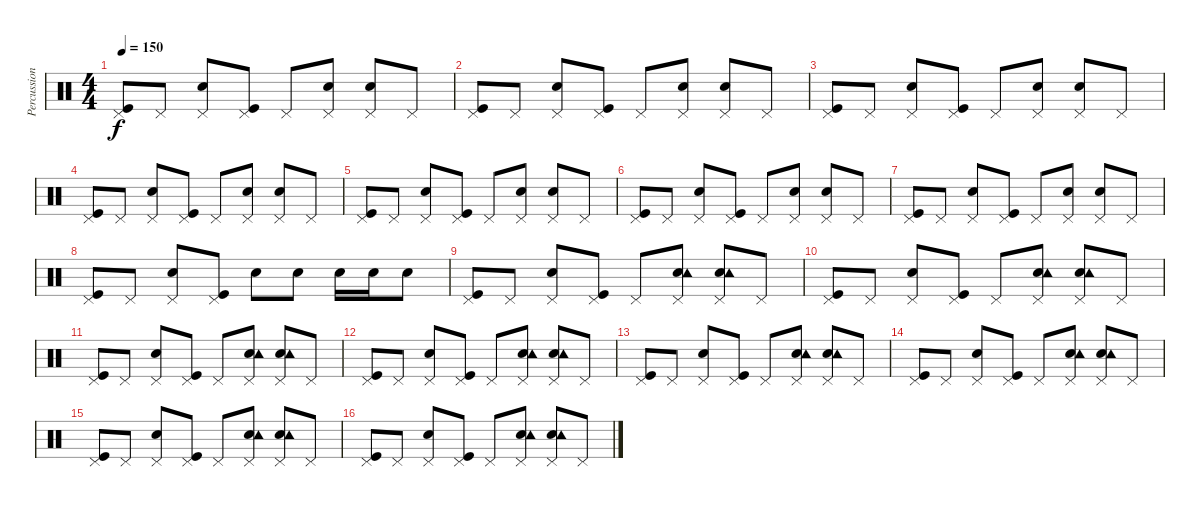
\track ("Percussion" "Percussion") {instrument percussion}
\staff {score}
\articulation defaults
\ts (4 4)
\tempo 150
\clef neutral
\ks c
("Kick (hit)" "Pedal Hi-Hat (hit)").8{dy f} "Pedal Hi-Hat (hit)".8 ("Electric Snare (hit)" "Pedal Hi-Hat (hit)").8 ("Kick (hit)" "Pedal Hi-Hat (hit)").8 "Pedal Hi-Hat (hit)".8 ("Electric Snare (hit)" "Pedal Hi-Hat (hit)").8 ("Electric Snare (hit)" "Pedal Hi-Hat (hit)").8 "Pedal Hi-Hat (hit)".8 |
("Kick (hit)" "Pedal Hi-Hat (hit)").8 "Pedal Hi-Hat (hit)".8 ("Electric Snare (hit)" "Pedal Hi-Hat (hit)").8 ("Kick (hit)" "Pedal Hi-Hat (hit)").8 "Pedal Hi-Hat (hit)".8 ("Electric Snare (hit)" "Pedal Hi-Hat (hit)").8 ("Electric Snare (hit)" "Pedal Hi-Hat (hit)").8 "Pedal Hi-Hat (hit)".8 |
("Kick (hit)" "Pedal Hi-Hat (hit)").8 "Pedal Hi-Hat (hit)".8 ("Electric Snare (hit)" "Pedal Hi-Hat (hit)").8 ("Kick (hit)" "Pedal Hi-Hat (hit)").8 "Pedal Hi-Hat (hit)".8 ("Electric Snare (hit)" "Pedal Hi-Hat (hit)").8 ("Electric Snare (hit)" "Pedal Hi-Hat (hit)").8 "Pedal Hi-Hat (hit)".8 |
("Kick (hit)" "Pedal Hi-Hat (hit)").8 "Pedal Hi-Hat (hit)".8 ("Electric Snare (hit)" "Pedal Hi-Hat (hit)").8 ("Kick (hit)" "Pedal Hi-Hat (hit)").8 "Pedal Hi-Hat (hit)".8 ("Electric Snare (hit)" "Pedal Hi-Hat (hit)").8 ("Electric Snare (hit)" "Pedal Hi-Hat (hit)").8 "Pedal Hi-Hat (hit)".8 |
("Kick (hit)" "Pedal Hi-Hat (hit)").8 "Pedal Hi-Hat (hit)".8 ("Electric Snare (hit)" "Pedal Hi-Hat (hit)").8 ("Kick (hit)" "Pedal Hi-Hat (hit)").8 "Pedal Hi-Hat (hit)".8 ("Electric Snare (hit)" "Pedal Hi-Hat (hit)").8 ("Electric Snare (hit)" "Pedal Hi-Hat (hit)").8 "Pedal Hi-Hat (hit)".8 |
("Kick (hit)" "Pedal Hi-Hat (hit)").8 "Pedal Hi-Hat (hit)".8 ("Electric Snare (hit)" "Pedal Hi-Hat (hit)").8 ("Kick (hit)" "Pedal Hi-Hat (hit)").8 "Pedal Hi-Hat (hit)".8 ("Electric Snare (hit)" "Pedal Hi-Hat (hit)").8 ("Electric Snare (hit)" "Pedal Hi-Hat (hit)").8 "Pedal Hi-Hat (hit)".8 |
("Kick (hit)" "Pedal Hi-Hat (hit)").8 "Pedal Hi-Hat (hit)".8 ("Electric Snare (hit)" "Pedal Hi-Hat (hit)").8 ("Kick (hit)" "Pedal Hi-Hat (hit)").8 "Pedal Hi-Hat (hit)".8 ("Electric Snare (hit)" "Pedal Hi-Hat (hit)").8 ("Electric Snare (hit)" "Pedal Hi-Hat (hit)").8 "Pedal Hi-Hat (hit)".8 |
("Kick (hit)" "Pedal Hi-Hat (hit)").8 "Pedal Hi-Hat (hit)".8 ("Electric Snare (hit)" "Pedal Hi-Hat (hit)").8 ("Kick (hit)" "Pedal Hi-Hat (hit)").8 "Electric Snare (hit)".8 "Electric Snare (hit)".8 "Electric Snare (hit)".16 "Electric Snare (hit)".16 "Electric Snare (hit)".8 |
("Kick (hit)" "Pedal Hi-Hat (hit)").8 "Pedal Hi-Hat (hit)".8 ("Electric Snare (hit)" "Pedal Hi-Hat (hit)").8 ("Kick (hit)" "Pedal Hi-Hat (hit)").8 "Pedal Hi-Hat (hit)".8 ("Electric Snare (hit)" "Tambourine (hit)" "Pedal Hi-Hat (hit)").8 ("Electric Snare (hit)" "Tambourine (hit)" "Pedal Hi-Hat (hit)").8 "Pedal Hi-Hat (hit)".8 |
("Kick (hit)" "Pedal Hi-Hat (hit)").8 "Pedal Hi-Hat (hit)".8 ("Electric Snare (hit)" "Pedal Hi-Hat (hit)").8 ("Kick (hit)" "Pedal Hi-Hat (hit)").8 "Pedal Hi-Hat (hit)".8 ("Electric Snare (hit)" "Tambourine (hit)" "Pedal Hi-Hat (hit)").8 ("Electric Snare (hit)" "Tambourine (hit)" "Pedal Hi-Hat (hit)").8 "Pedal Hi-Hat (hit)".8 |
("Kick (hit)" "Pedal Hi-Hat (hit)").8 "Pedal Hi-Hat (hit)".8 ("Electric Snare (hit)" "Pedal Hi-Hat (hit)").8 ("Kick (hit)" "Pedal Hi-Hat (hit)").8 "Pedal Hi-Hat (hit)".8 ("Electric Snare (hit)" "Tambourine (hit)" "Pedal Hi-Hat (hit)").8 ("Electric Snare (hit)" "Tambourine (hit)" "Pedal Hi-Hat (hit)").8 "Pedal Hi-Hat (hit)".8 |
("Kick (hit)" "Pedal Hi-Hat (hit)").8 "Pedal Hi-Hat (hit)".8 ("Electric Snare (hit)" "Pedal Hi-Hat (hit)").8 ("Kick (hit)" "Pedal Hi-Hat (hit)").8 "Pedal Hi-Hat (hit)".8 ("Electric Snare (hit)" "Tambourine (hit)" "Pedal Hi-Hat (hit)").8 ("Electric Snare (hit)" "Tambourine (hit)" "Pedal Hi-Hat (hit)").8 "Pedal Hi-Hat (hit)".8 |
("Kick (hit)" "Pedal Hi-Hat (hit)").8 "Pedal Hi-Hat (hit)".8 ("Electric Snare (hit)" "Pedal Hi-Hat (hit)").8 ("Kick (hit)" "Pedal Hi-Hat (hit)").8 "Pedal Hi-Hat (hit)".8 ("Electric Snare (hit)" "Tambourine (hit)" "Pedal Hi-Hat (hit)").8 ("Electric Snare (hit)" "Tambourine (hit)" "Pedal Hi-Hat (hit)").8 "Pedal Hi-Hat (hit)".8 |
("Kick (hit)" "Pedal Hi-Hat (hit)").8 "Pedal Hi-Hat (hit)".8 ("Electric Snare (hit)" "Pedal Hi-Hat (hit)").8 ("Kick (hit)" "Pedal Hi-Hat (hit)").8 "Pedal Hi-Hat (hit)".8 ("Electric Snare (hit)" "Tambourine (hit)" "Pedal Hi-Hat (hit)").8 ("Electric Snare (hit)" "Tambourine (hit)" "Pedal Hi-Hat (hit)").8 "Pedal Hi-Hat (hit)".8 |
("Kick (hit)" "Pedal Hi-Hat (hit)").8 "Pedal Hi-Hat (hit)".8 ("Electric Snare (hit)" "Pedal Hi-Hat (hit)").8 ("Kick (hit)" "Pedal Hi-Hat (hit)").8 "Pedal Hi-Hat (hit)".8 ("Electric Snare (hit)" "Tambourine (hit)" "Pedal Hi-Hat (hit)").8 ("Electric Snare (hit)" "Tambourine (hit)" "Pedal Hi-Hat (hit)").8 "Pedal Hi-Hat (hit)".8 |
("Kick (hit)" "Pedal Hi-Hat (hit)").8 "Pedal Hi-Hat (hit)".8 ("Electric Snare (hit)" "Pedal Hi-Hat (hit)").8 ("Kick (hit)" "Pedal Hi-Hat (hit)").8 "Pedal Hi-Hat (hit)".8 ("Electric Snare (hit)" "Tambourine (hit)" "Pedal Hi-Hat (hit)").8 ("Electric Snare (hit)" "Tambourine (hit)" "Pedal Hi-Hat (hit)").8 "Pedal Hi-Hat (hit)".8
